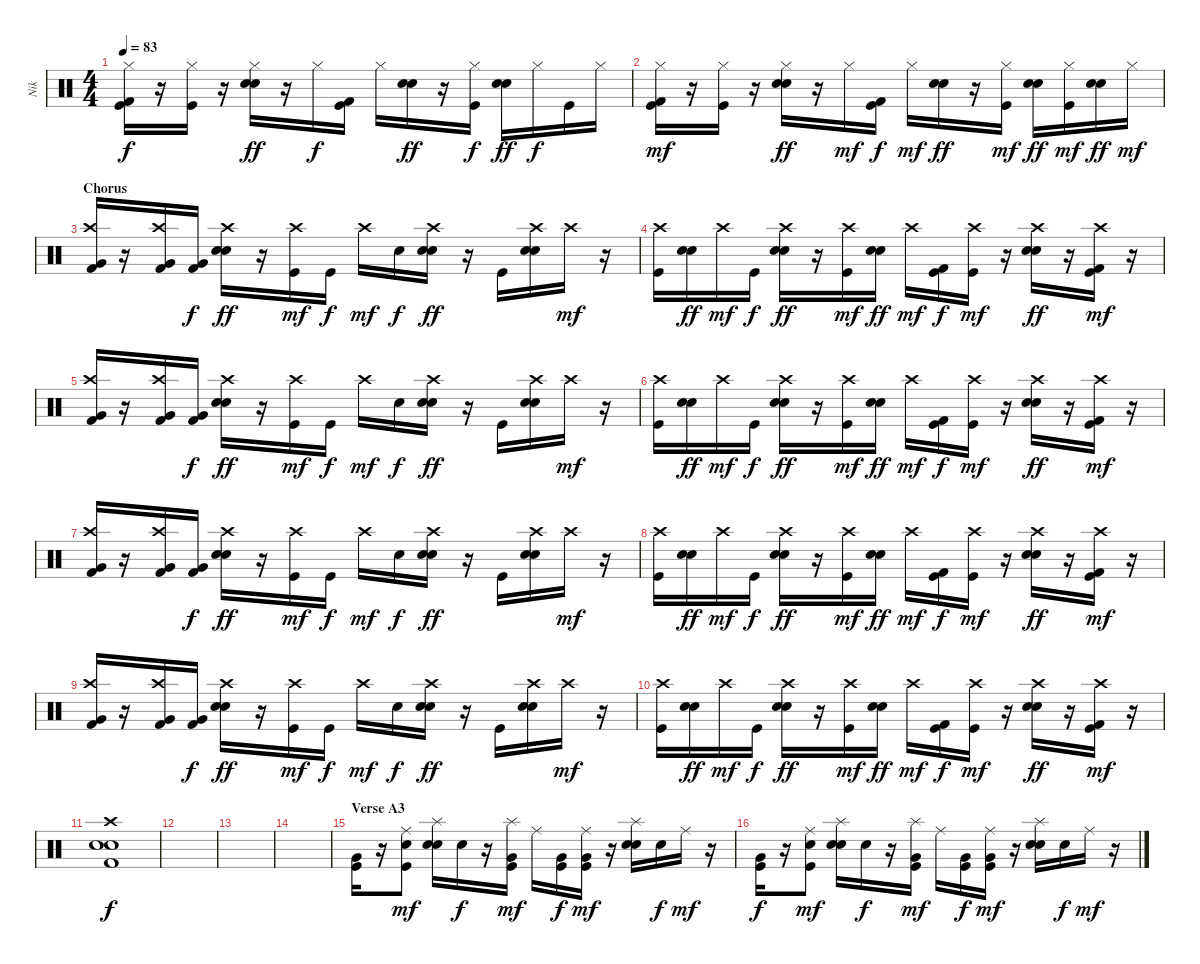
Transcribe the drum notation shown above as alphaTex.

\track ("Nik" "Nik") {instrument percussion}
\staff {score}
\articulation defaults
\ts (4 4)
\tempo 83
\clef neutral
\ks c
("Hi-Hat (closed)" "Kick (hit) 2" "Kick (hit)").16{dy f} r.16 ("Hi-Hat (closed)" "Kick (hit)").16 r.16 ("Hi-Hat (closed)" "Electric Snare (hit)" "Electric Snare (hit)").16{dy ff} r.16 "Hi-Hat (closed)".16{dy f} ("Kick (hit) 2" "Kick (hit)").16 "Hi-Hat (closed)".16 ("Electric Snare (hit)" "Electric Snare (hit)").16{dy ff} r.16 ("Hi-Hat (closed)" "Kick (hit)").16{dy f} ("Electric Snare (hit)" "Electric Snare (hit)").16{dy ff} "Hi-Hat (closed)".16{dy f} "Kick (hit)".16 "Hi-Hat (closed)".16 |
("Hi-Hat (closed)" "Kick (hit) 2" "Kick (hit)").16{dy mf} r.16 ("Hi-Hat (closed)" "Kick (hit)").16 r.16 ("Hi-Hat (closed)" "Electric Snare (hit)" "Electric Snare (hit)").16{dy ff} r.16 "Hi-Hat (closed)".16{dy mf} ("Kick (hit) 2" "Kick (hit)").16{dy f} "Hi-Hat (closed)".16{dy mf} ("Electric Snare (hit)" "Electric Snare (hit)").16{dy ff} r.16 ("Hi-Hat (closed)" "Kick (hit)").16{dy mf} ("Electric Snare (hit)" "Electric Snare (hit)").16{dy ff} ("Hi-Hat (closed)" "Kick (hit)").16{dy mf} ("Electric Snare (hit)" "Electric Snare (hit)").16{dy ff} "Hi-Hat (closed)".16{dy mf} |
\section ("" "Chorus")
("Crash high (hit)" "Kick (hit) 2" "Very Low Tom (hit)").16 r.16 ("Crash high (hit)" "Kick (hit) 2" "Very Low Tom (hit)").16 ("Kick (hit) 2" "Very Low Tom (hit)").16{dy f} ("Crash high (hit)" "Electric Snare (hit)" "Electric Snare (hit)").16{dy ff} r.16 ("Crash high (hit)" "Kick (hit)").16{dy mf} "Kick (hit)".16{dy f} "Crash high (hit)".16{dy mf} "Electric Snare (hit)".16{dy f} ("Crash high (hit)" "Electric Snare (hit)" "Electric Snare (hit)").16{dy ff} r.16 "Kick (hit)".16 ("Crash high (hit)" "Electric Snare (hit)" "Electric Snare (hit)").16 "Crash high (hit)".16{dy mf} r.16 |
("Crash high (hit)" "Kick (hit)").16 ("Electric Snare (hit)" "Electric Snare (hit)").16{dy ff} "Crash high (hit)".16{dy mf} "Kick (hit)".16{dy f} ("Crash high (hit)" "Electric Snare (hit)" "Electric Snare (hit)").16{dy ff} r.16 ("Crash high (hit)" "Kick (hit)").16{dy mf} ("Electric Snare (hit)" "Electric Snare (hit)").16{dy ff} "Crash high (hit)".16{dy mf} ("Kick (hit) 2" "Kick (hit)").16{dy f} ("Crash high (hit)" "Kick (hit)").16{dy mf} r.16 ("Crash high (hit)" "Electric Snare (hit)" "Electric Snare (hit)").16{dy ff} r.16 ("Crash high (hit)" "Kick (hit) 2" "Kick (hit)").16{dy mf} r.16 |
("Crash high (hit)" "Kick (hit) 2" "Very Low Tom (hit)").16 r.16 ("Crash high (hit)" "Kick (hit) 2" "Very Low Tom (hit)").16 ("Kick (hit) 2" "Very Low Tom (hit)").16{dy f} ("Crash high (hit)" "Electric Snare (hit)" "Electric Snare (hit)").16{dy ff} r.16 ("Crash high (hit)" "Kick (hit)").16{dy mf} "Kick (hit)".16{dy f} "Crash high (hit)".16{dy mf} "Electric Snare (hit)".16{dy f} ("Crash high (hit)" "Electric Snare (hit)" "Electric Snare (hit)").16{dy ff} r.16 "Kick (hit)".16 ("Crash high (hit)" "Electric Snare (hit)" "Electric Snare (hit)").16 "Crash high (hit)".16{dy mf} r.16 |
("Crash high (hit)" "Kick (hit)").16 ("Electric Snare (hit)" "Electric Snare (hit)").16{dy ff} "Crash high (hit)".16{dy mf} "Kick (hit)".16{dy f} ("Crash high (hit)" "Electric Snare (hit)" "Electric Snare (hit)").16{dy ff} r.16 ("Crash high (hit)" "Kick (hit)").16{dy mf} ("Electric Snare (hit)" "Electric Snare (hit)").16{dy ff} "Crash high (hit)".16{dy mf} ("Kick (hit) 2" "Kick (hit)").16{dy f} ("Crash high (hit)" "Kick (hit)").16{dy mf} r.16 ("Crash high (hit)" "Electric Snare (hit)" "Electric Snare (hit)").16{dy ff} r.16 ("Crash high (hit)" "Kick (hit) 2" "Kick (hit)").16{dy mf} r.16 |
("Crash high (hit)" "Kick (hit) 2" "Very Low Tom (hit)").16 r.16 ("Crash high (hit)" "Kick (hit) 2" "Very Low Tom (hit)").16 ("Kick (hit) 2" "Very Low Tom (hit)").16{dy f} ("Crash high (hit)" "Electric Snare (hit)" "Electric Snare (hit)").16{dy ff} r.16 ("Crash high (hit)" "Kick (hit)").16{dy mf} "Kick (hit)".16{dy f} "Crash high (hit)".16{dy mf} "Electric Snare (hit)".16{dy f} ("Crash high (hit)" "Electric Snare (hit)" "Electric Snare (hit)").16{dy ff} r.16 "Kick (hit)".16 ("Crash high (hit)" "Electric Snare (hit)" "Electric Snare (hit)").16 "Crash high (hit)".16{dy mf} r.16 |
("Crash high (hit)" "Kick (hit)").16 ("Electric Snare (hit)" "Electric Snare (hit)").16{dy ff} "Crash high (hit)".16{dy mf} "Kick (hit)".16{dy f} ("Crash high (hit)" "Electric Snare (hit)" "Electric Snare (hit)").16{dy ff} r.16 ("Crash high (hit)" "Kick (hit)").16{dy mf} ("Electric Snare (hit)" "Electric Snare (hit)").16{dy ff} "Crash high (hit)".16{dy mf} ("Kick (hit) 2" "Kick (hit)").16{dy f} ("Crash high (hit)" "Kick (hit)").16{dy mf} r.16 ("Crash high (hit)" "Electric Snare (hit)" "Electric Snare (hit)").16{dy ff} r.16 ("Crash high (hit)" "Kick (hit) 2" "Kick (hit)").16{dy mf} r.16 |
("Crash high (hit)" "Kick (hit) 2" "Very Low Tom (hit)").16 r.16 ("Crash high (hit)" "Kick (hit) 2" "Very Low Tom (hit)").16 ("Kick (hit) 2" "Very Low Tom (hit)").16{dy f} ("Crash high (hit)" "Electric Snare (hit)" "Electric Snare (hit)").16{dy ff} r.16 ("Crash high (hit)" "Kick (hit)").16{dy mf} "Kick (hit)".16{dy f} "Crash high (hit)".16{dy mf} "Electric Snare (hit)".16{dy f} ("Crash high (hit)" "Electric Snare (hit)" "Electric Snare (hit)").16{dy ff} r.16 "Kick (hit)".16 ("Crash high (hit)" "Electric Snare (hit)" "Electric Snare (hit)").16 "Crash high (hit)".16{dy mf} r.16 |
("Crash high (hit)" "Kick (hit)").16 ("Electric Snare (hit)" "Electric Snare (hit)").16{dy ff} "Crash high (hit)".16{dy mf} "Kick (hit)".16{dy f} ("Crash high (hit)" "Electric Snare (hit)" "Electric Snare (hit)").16{dy ff} r.16 ("Crash high (hit)" "Kick (hit)").16{dy mf} ("Electric Snare (hit)" "Electric Snare (hit)").16{dy ff} "Crash high (hit)".16{dy mf} ("Kick (hit) 2" "Kick (hit)").16{dy f} ("Crash high (hit)" "Kick (hit)").16{dy mf} r.16 ("Crash high (hit)" "Electric Snare (hit)" "Electric Snare (hit)").16{dy ff} r.16 ("Crash high (hit)" "Kick (hit) 2" "Kick (hit)").16{dy mf} r.16 |
\section ("" "")
("Crash high (hit)" "Electric Snare (hit)" "Electric Snare (hit)" "Kick (hit) 2").1{dy f} |
|
|
|
\section ("" "Verse A3")
("Kick (hit)" "Very Low Tom (hit)").16{volume 13} r.16 ("Ride (middle)" "Kick (hit)" "Electric Snare (hit)").8{dy mf} ("Splash (hit)" "Electric Snare (hit)" "Electric Snare (hit)").16 "Electric Snare (hit)".16{dy f} r.16 ("Splash (hit)" "Kick (hit)" "Very Low Tom (hit)").16{dy mf} "Ride (middle)".16 ("Kick (hit)" "Very Low Tom (hit)").16{dy f} ("Ride (middle)" "Kick (hit)" "Very Low Tom (hit)").16{dy mf} r.16 ("Splash (hit)" "Electric Snare (hit)" "Electric Snare (hit)").16 "Electric Snare (hit)".16{dy f} "Ride (middle)".16{dy mf} r.16 |
("Kick (hit)" "Very Low Tom (hit)").16{dy f} r.16 ("Ride (middle)" "Kick (hit)" "Electric Snare (hit)").8{dy mf} ("Splash (hit)" "Electric Snare (hit)" "Electric Snare (hit)").16 "Electric Snare (hit)".16{dy f} r.16 ("Splash (hit)" "Kick (hit)" "Very Low Tom (hit)").16{dy mf} "Ride (middle)".16 ("Kick (hit)" "Very Low Tom (hit)").16{dy f} ("Ride (middle)" "Kick (hit)" "Very Low Tom (hit)").16{dy mf} r.16 ("Splash (hit)" "Electric Snare (hit)" "Electric Snare (hit)").16 "Electric Snare (hit)".16{dy f} "Ride (middle)".16{dy mf} r.16
